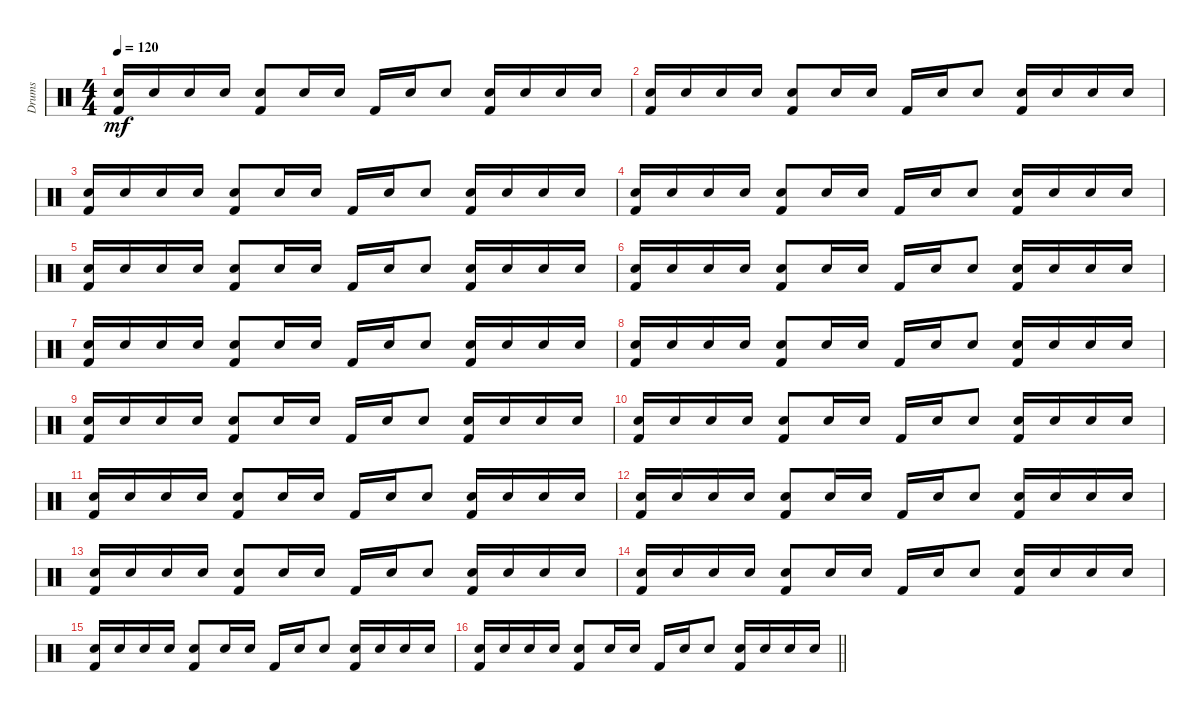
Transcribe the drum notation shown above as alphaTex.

\track ("Drums" "Drums") {instrument percussion}
\staff {score}
\articulation defaults
\ts (4 4)
\section ("" "")
\tempo 120
\clef neutral
\ks c
("Electric Snare (hit)" "Kick (hit) 2").16{dy mf} "Electric Snare (hit)".16 "Electric Snare (hit)".16 "Electric Snare (hit)".16 ("Electric Snare (hit)" "Kick (hit) 2").8 "Electric Snare (hit)".16 "Electric Snare (hit)".16 "Kick (hit) 2".16 "Electric Snare (hit)".16 "Electric Snare (hit)".8 ("Electric Snare (hit)" "Kick (hit) 2").16 "Electric Snare (hit)".16 "Electric Snare (hit)".16 "Electric Snare (hit)".16 |
("Electric Snare (hit)" "Kick (hit) 2").16 "Electric Snare (hit)".16 "Electric Snare (hit)".16 "Electric Snare (hit)".16 ("Electric Snare (hit)" "Kick (hit) 2").8 "Electric Snare (hit)".16 "Electric Snare (hit)".16 "Kick (hit) 2".16 "Electric Snare (hit)".16 "Electric Snare (hit)".8 ("Electric Snare (hit)" "Kick (hit) 2").16 "Electric Snare (hit)".16 "Electric Snare (hit)".16 "Electric Snare (hit)".16 |
("Electric Snare (hit)" "Kick (hit) 2").16 "Electric Snare (hit)".16 "Electric Snare (hit)".16 "Electric Snare (hit)".16 ("Electric Snare (hit)" "Kick (hit) 2").8 "Electric Snare (hit)".16 "Electric Snare (hit)".16 "Kick (hit) 2".16 "Electric Snare (hit)".16 "Electric Snare (hit)".8 ("Electric Snare (hit)" "Kick (hit) 2").16 "Electric Snare (hit)".16 "Electric Snare (hit)".16 "Electric Snare (hit)".16 |
("Electric Snare (hit)" "Kick (hit) 2").16 "Electric Snare (hit)".16 "Electric Snare (hit)".16 "Electric Snare (hit)".16 ("Electric Snare (hit)" "Kick (hit) 2").8 "Electric Snare (hit)".16 "Electric Snare (hit)".16 "Kick (hit) 2".16 "Electric Snare (hit)".16 "Electric Snare (hit)".8 ("Electric Snare (hit)" "Kick (hit) 2").16 "Electric Snare (hit)".16 "Electric Snare (hit)".16 "Electric Snare (hit)".16 |
("Electric Snare (hit)" "Kick (hit) 2").16 "Electric Snare (hit)".16 "Electric Snare (hit)".16 "Electric Snare (hit)".16 ("Electric Snare (hit)" "Kick (hit) 2").8 "Electric Snare (hit)".16 "Electric Snare (hit)".16 "Kick (hit) 2".16 "Electric Snare (hit)".16 "Electric Snare (hit)".8 ("Electric Snare (hit)" "Kick (hit) 2").16 "Electric Snare (hit)".16 "Electric Snare (hit)".16 "Electric Snare (hit)".16 |
("Electric Snare (hit)" "Kick (hit) 2").16 "Electric Snare (hit)".16 "Electric Snare (hit)".16 "Electric Snare (hit)".16 ("Electric Snare (hit)" "Kick (hit) 2").8 "Electric Snare (hit)".16 "Electric Snare (hit)".16 "Kick (hit) 2".16 "Electric Snare (hit)".16 "Electric Snare (hit)".8 ("Electric Snare (hit)" "Kick (hit) 2").16 "Electric Snare (hit)".16 "Electric Snare (hit)".16 "Electric Snare (hit)".16 |
("Electric Snare (hit)" "Kick (hit) 2").16 "Electric Snare (hit)".16 "Electric Snare (hit)".16 "Electric Snare (hit)".16 ("Electric Snare (hit)" "Kick (hit) 2").8 "Electric Snare (hit)".16 "Electric Snare (hit)".16 "Kick (hit) 2".16 "Electric Snare (hit)".16 "Electric Snare (hit)".8 ("Electric Snare (hit)" "Kick (hit) 2").16 "Electric Snare (hit)".16 "Electric Snare (hit)".16 "Electric Snare (hit)".16 |
("Electric Snare (hit)" "Kick (hit) 2").16 "Electric Snare (hit)".16 "Electric Snare (hit)".16 "Electric Snare (hit)".16 ("Electric Snare (hit)" "Kick (hit) 2").8 "Electric Snare (hit)".16 "Electric Snare (hit)".16 "Kick (hit) 2".16 "Electric Snare (hit)".16 "Electric Snare (hit)".8 ("Electric Snare (hit)" "Kick (hit) 2").16 "Electric Snare (hit)".16 "Electric Snare (hit)".16 "Electric Snare (hit)".16 |
("Electric Snare (hit)" "Kick (hit) 2").16 "Electric Snare (hit)".16 "Electric Snare (hit)".16 "Electric Snare (hit)".16 ("Electric Snare (hit)" "Kick (hit) 2").8 "Electric Snare (hit)".16 "Electric Snare (hit)".16 "Kick (hit) 2".16 "Electric Snare (hit)".16 "Electric Snare (hit)".8 ("Electric Snare (hit)" "Kick (hit) 2").16 "Electric Snare (hit)".16 "Electric Snare (hit)".16 "Electric Snare (hit)".16 |
("Electric Snare (hit)" "Kick (hit) 2").16 "Electric Snare (hit)".16 "Electric Snare (hit)".16 "Electric Snare (hit)".16 ("Electric Snare (hit)" "Kick (hit) 2").8 "Electric Snare (hit)".16 "Electric Snare (hit)".16 "Kick (hit) 2".16 "Electric Snare (hit)".16 "Electric Snare (hit)".8 ("Electric Snare (hit)" "Kick (hit) 2").16 "Electric Snare (hit)".16 "Electric Snare (hit)".16 "Electric Snare (hit)".16 |
("Electric Snare (hit)" "Kick (hit) 2").16 "Electric Snare (hit)".16 "Electric Snare (hit)".16 "Electric Snare (hit)".16 ("Electric Snare (hit)" "Kick (hit) 2").8 "Electric Snare (hit)".16 "Electric Snare (hit)".16 "Kick (hit) 2".16 "Electric Snare (hit)".16 "Electric Snare (hit)".8 ("Electric Snare (hit)" "Kick (hit) 2").16 "Electric Snare (hit)".16 "Electric Snare (hit)".16 "Electric Snare (hit)".16 |
("Electric Snare (hit)" "Kick (hit) 2").16 "Electric Snare (hit)".16 "Electric Snare (hit)".16 "Electric Snare (hit)".16 ("Electric Snare (hit)" "Kick (hit) 2").8 "Electric Snare (hit)".16 "Electric Snare (hit)".16 "Kick (hit) 2".16 "Electric Snare (hit)".16 "Electric Snare (hit)".8 ("Electric Snare (hit)" "Kick (hit) 2").16 "Electric Snare (hit)".16 "Electric Snare (hit)".16 "Electric Snare (hit)".16 |
("Electric Snare (hit)" "Kick (hit) 2").16 "Electric Snare (hit)".16 "Electric Snare (hit)".16 "Electric Snare (hit)".16 ("Electric Snare (hit)" "Kick (hit) 2").8 "Electric Snare (hit)".16 "Electric Snare (hit)".16 "Kick (hit) 2".16 "Electric Snare (hit)".16 "Electric Snare (hit)".8 ("Electric Snare (hit)" "Kick (hit) 2").16 "Electric Snare (hit)".16 "Electric Snare (hit)".16 "Electric Snare (hit)".16 |
("Electric Snare (hit)" "Kick (hit) 2").16 "Electric Snare (hit)".16 "Electric Snare (hit)".16 "Electric Snare (hit)".16 ("Electric Snare (hit)" "Kick (hit) 2").8 "Electric Snare (hit)".16 "Electric Snare (hit)".16 "Kick (hit) 2".16 "Electric Snare (hit)".16 "Electric Snare (hit)".8 ("Electric Snare (hit)" "Kick (hit) 2").16 "Electric Snare (hit)".16 "Electric Snare (hit)".16 "Electric Snare (hit)".16 |
("Electric Snare (hit)" "Kick (hit) 2").16 "Electric Snare (hit)".16 "Electric Snare (hit)".16 "Electric Snare (hit)".16 ("Electric Snare (hit)" "Kick (hit) 2").8 "Electric Snare (hit)".16 "Electric Snare (hit)".16 "Kick (hit) 2".16 "Electric Snare (hit)".16 "Electric Snare (hit)".8 ("Electric Snare (hit)" "Kick (hit) 2").16 "Electric Snare (hit)".16 "Electric Snare (hit)".16 "Electric Snare (hit)".16 |
\barLineRight lightlight
("Electric Snare (hit)" "Kick (hit) 2").16 "Electric Snare (hit)".16 "Electric Snare (hit)".16 "Electric Snare (hit)".16 ("Electric Snare (hit)" "Kick (hit) 2").8 "Electric Snare (hit)".16 "Electric Snare (hit)".16 "Kick (hit) 2".16 "Electric Snare (hit)".16 "Electric Snare (hit)".8 ("Electric Snare (hit)" "Kick (hit) 2").16 "Electric Snare (hit)".16 "Electric Snare (hit)".16 "Electric Snare (hit)".16
